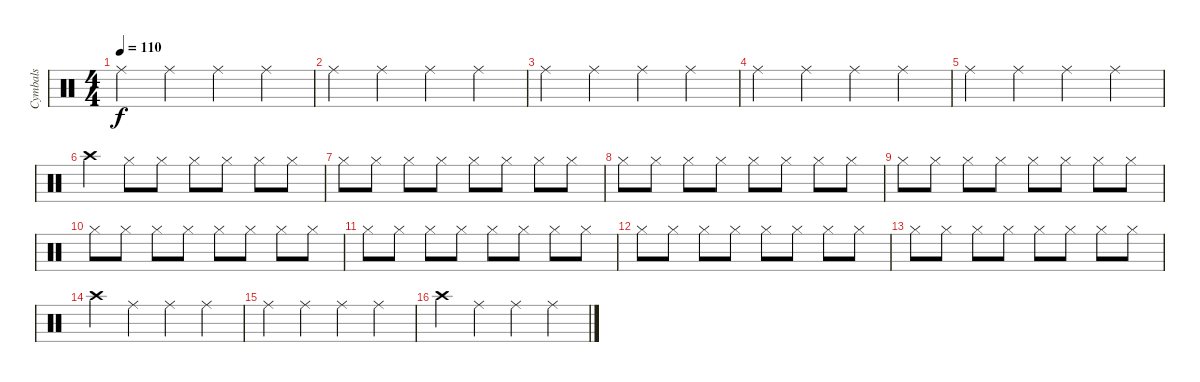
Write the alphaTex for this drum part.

\track ("Cymbals" "Cymbals") {instrument percussion}
\staff {score}
\articulation defaults
\ts (4 4)
\tempo 110
\clef neutral
\ks c "Ride (middle)".4{dy f} "Ride (middle)".4 "Ride (middle)".4 "Ride (middle)".4
|
"Ride (middle)".4 "Ride (middle)".4 "Ride (middle)".4 "Ride (middle)".4 |
"Ride (middle)".4 "Ride (middle)".4 "Ride (middle)".4 "Ride (middle)".4 |
"Ride (middle)".4 "Ride (middle)".4 "Ride (middle)".4 "Ride (middle)".4 |
"Ride (middle)".4 "Ride (middle)".4 "Ride (middle)".4 "Ride (middle)".4 |
"Crash high (hit)".4 "Hi-Hat (closed)".8 "Hi-Hat (closed)".8 "Hi-Hat (closed)".8 "Hi-Hat (closed)".8 "Hi-Hat (closed)".8 "Hi-Hat (closed)".8 |
"Hi-Hat (closed)".8 "Hi-Hat (closed)".8 "Hi-Hat (closed)".8 "Hi-Hat (closed)".8 "Hi-Hat (closed)".8 "Hi-Hat (closed)".8 "Hi-Hat (closed)".8 "Hi-Hat (closed)".8 |
"Hi-Hat (closed)".8 "Hi-Hat (closed)".8 "Hi-Hat (closed)".8 "Hi-Hat (closed)".8 "Hi-Hat (closed)".8 "Hi-Hat (closed)".8 "Hi-Hat (closed)".8 "Hi-Hat (closed)".8 |
"Hi-Hat (closed)".8 "Hi-Hat (closed)".8 "Hi-Hat (closed)".8 "Hi-Hat (closed)".8 "Hi-Hat (closed)".8 "Hi-Hat (closed)".8 "Hi-Hat (closed)".8 "Hi-Hat (closed)".8 |
"Hi-Hat (closed)".8 "Hi-Hat (closed)".8 "Hi-Hat (closed)".8 "Hi-Hat (closed)".8 "Hi-Hat (closed)".8 "Hi-Hat (closed)".8 "Hi-Hat (closed)".8 "Hi-Hat (closed)".8 |
"Hi-Hat (closed)".8 "Hi-Hat (closed)".8 "Hi-Hat (closed)".8 "Hi-Hat (closed)".8 "Hi-Hat (closed)".8 "Hi-Hat (closed)".8 "Hi-Hat (closed)".8 "Hi-Hat (closed)".8 |
"Hi-Hat (closed)".8 "Hi-Hat (closed)".8 "Hi-Hat (closed)".8 "Hi-Hat (closed)".8 "Hi-Hat (closed)".8 "Hi-Hat (closed)".8 "Hi-Hat (closed)".8 "Hi-Hat (closed)".8 |
"Hi-Hat (closed)".8 "Hi-Hat (closed)".8 "Hi-Hat (closed)".8 "Hi-Hat (closed)".8 "Hi-Hat (closed)".8 "Hi-Hat (closed)".8 "Hi-Hat (closed)".8 "Hi-Hat (closed)".8 |
"Crash high (hit)".4 "Ride (middle)".4 "Ride (middle)".4 "Ride (middle)".4 |
"Ride (middle)".4 "Ride (middle)".4 "Ride (middle)".4 "Ride (middle)".4 |
"Crash high (hit)".4 "Ride (middle)".4 "Ride (middle)".4 "Ride (middle)".4
